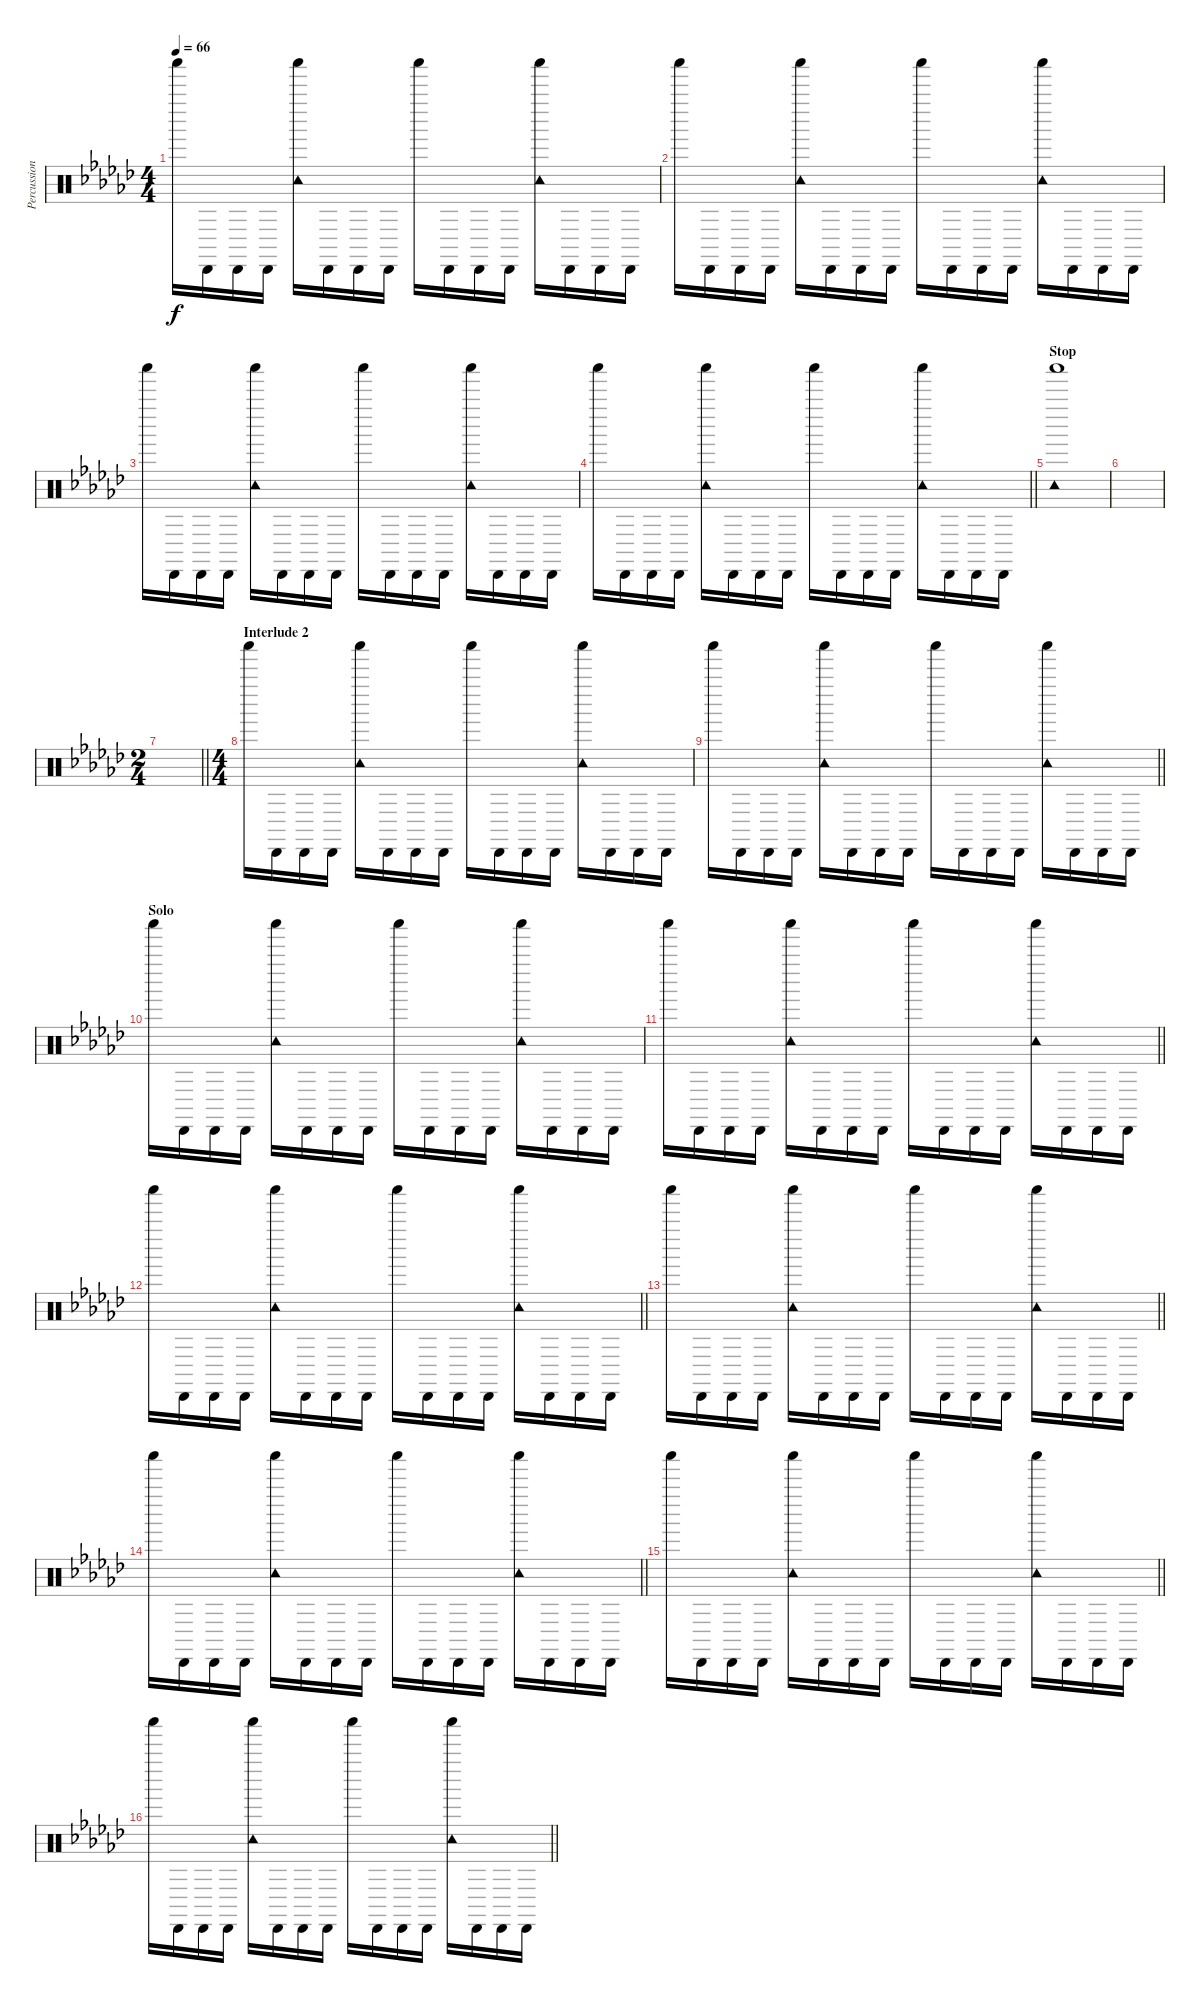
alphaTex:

\track ("Percussion" "Percussion") {instrument percussion}
\staff {score}
\articulation defaults
\ts (4 4)
\tempo 66
\clef neutral
\ks gb "Shaker (hit)".16{dy f} "Cabasa (hit)".16 "Cabasa (hit)".16 "Cabasa (hit)".16
("Shaker (hit)" "Tambourine (hit)").16 "Cabasa (hit)".16 "Cabasa (hit)".16 "Cabasa (hit)".16 "Shaker (hit)".16 "Cabasa (hit)".16 "Cabasa (hit)".16 "Cabasa (hit)".16 ("Shaker (hit)" "Tambourine (hit)").16 "Cabasa (hit)".16 "Cabasa (hit)".16 "Cabasa (hit)".16 |
"Shaker (hit)".16 "Cabasa (hit)".16 "Cabasa (hit)".16 "Cabasa (hit)".16 ("Shaker (hit)" "Tambourine (hit)").16 "Cabasa (hit)".16 "Cabasa (hit)".16 "Cabasa (hit)".16 "Shaker (hit)".16 "Cabasa (hit)".16 "Cabasa (hit)".16 "Cabasa (hit)".16 ("Shaker (hit)" "Tambourine (hit)").16 "Cabasa (hit)".16 "Cabasa (hit)".16 "Cabasa (hit)".16 |
"Shaker (hit)".16 "Cabasa (hit)".16 "Cabasa (hit)".16 "Cabasa (hit)".16 ("Shaker (hit)" "Tambourine (hit)").16 "Cabasa (hit)".16 "Cabasa (hit)".16 "Cabasa (hit)".16 "Shaker (hit)".16 "Cabasa (hit)".16 "Cabasa (hit)".16 "Cabasa (hit)".16 ("Shaker (hit)" "Tambourine (hit)").16 "Cabasa (hit)".16 "Cabasa (hit)".16 "Cabasa (hit)".16 |
\barLineRight lightlight "Shaker (hit)".16 "Cabasa (hit)".16 "Cabasa (hit)".16 "Cabasa (hit)".16
("Shaker (hit)" "Tambourine (hit)").16 "Cabasa (hit)".16 "Cabasa (hit)".16 "Cabasa (hit)".16 "Shaker (hit)".16 "Cabasa (hit)".16 "Cabasa (hit)".16 "Cabasa (hit)".16 ("Shaker (hit)" "Tambourine (hit)").16 "Cabasa (hit)".16 "Cabasa (hit)".16 "Cabasa (hit)".16 |
\section ("" "Stop")
("Shaker (hit)" "Tambourine (hit)").1 |
|
\ts (2 4)
\barLineRight lightlight
|
\ts (4 4)
\section ("" "Interlude 2")
"Shaker (hit)".16 "Cabasa (hit)".16 "Cabasa (hit)".16 "Cabasa (hit)".16 ("Shaker (hit)" "Tambourine (hit)").16 "Cabasa (hit)".16 "Cabasa (hit)".16 "Cabasa (hit)".16 "Shaker (hit)".16 "Cabasa (hit)".16 "Cabasa (hit)".16 "Cabasa (hit)".16 ("Shaker (hit)" "Tambourine (hit)").16 "Cabasa (hit)".16 "Cabasa (hit)".16 "Cabasa (hit)".16 |
\barLineRight lightlight "Shaker (hit)".16 "Cabasa (hit)".16 "Cabasa (hit)".16 "Cabasa (hit)".16
("Shaker (hit)" "Tambourine (hit)").16 "Cabasa (hit)".16 "Cabasa (hit)".16 "Cabasa (hit)".16 "Shaker (hit)".16 "Cabasa (hit)".16 "Cabasa (hit)".16 "Cabasa (hit)".16 ("Shaker (hit)" "Tambourine (hit)").16 "Cabasa (hit)".16 "Cabasa (hit)".16 "Cabasa (hit)".16 |
\section ("" "Solo")
"Shaker (hit)".16 "Cabasa (hit)".16 "Cabasa (hit)".16 "Cabasa (hit)".16 ("Shaker (hit)" "Tambourine (hit)").16 "Cabasa (hit)".16 "Cabasa (hit)".16 "Cabasa (hit)".16 "Shaker (hit)".16 "Cabasa (hit)".16 "Cabasa (hit)".16 "Cabasa (hit)".16 ("Shaker (hit)" "Tambourine (hit)").16 "Cabasa (hit)".16 "Cabasa (hit)".16 "Cabasa (hit)".16 |
\barLineRight lightlight "Shaker (hit)".16 "Cabasa (hit)".16 "Cabasa (hit)".16 "Cabasa (hit)".16
("Shaker (hit)" "Tambourine (hit)").16 "Cabasa (hit)".16 "Cabasa (hit)".16 "Cabasa (hit)".16 "Shaker (hit)".16 "Cabasa (hit)".16 "Cabasa (hit)".16 "Cabasa (hit)".16 ("Shaker (hit)" "Tambourine (hit)").16 "Cabasa (hit)".16 "Cabasa (hit)".16 "Cabasa (hit)".16 |
\barLineRight lightlight "Shaker (hit)".16 "Cabasa (hit)".16 "Cabasa (hit)".16 "Cabasa (hit)".16
("Shaker (hit)" "Tambourine (hit)").16 "Cabasa (hit)".16 "Cabasa (hit)".16 "Cabasa (hit)".16 "Shaker (hit)".16 "Cabasa (hit)".16 "Cabasa (hit)".16 "Cabasa (hit)".16 ("Shaker (hit)" "Tambourine (hit)").16 "Cabasa (hit)".16 "Cabasa (hit)".16 "Cabasa (hit)".16 |
\barLineRight lightlight "Shaker (hit)".16 "Cabasa (hit)".16 "Cabasa (hit)".16 "Cabasa (hit)".16
("Shaker (hit)" "Tambourine (hit)").16 "Cabasa (hit)".16 "Cabasa (hit)".16 "Cabasa (hit)".16 "Shaker (hit)".16 "Cabasa (hit)".16 "Cabasa (hit)".16 "Cabasa (hit)".16 ("Shaker (hit)" "Tambourine (hit)").16 "Cabasa (hit)".16 "Cabasa (hit)".16 "Cabasa (hit)".16 |
\barLineRight lightlight "Shaker (hit)".16 "Cabasa (hit)".16 "Cabasa (hit)".16 "Cabasa (hit)".16
("Shaker (hit)" "Tambourine (hit)").16 "Cabasa (hit)".16 "Cabasa (hit)".16 "Cabasa (hit)".16 "Shaker (hit)".16 "Cabasa (hit)".16 "Cabasa (hit)".16 "Cabasa (hit)".16 ("Shaker (hit)" "Tambourine (hit)").16 "Cabasa (hit)".16 "Cabasa (hit)".16 "Cabasa (hit)".16 |
\barLineRight lightlight "Shaker (hit)".16 "Cabasa (hit)".16 "Cabasa (hit)".16 "Cabasa (hit)".16
("Shaker (hit)" "Tambourine (hit)").16 "Cabasa (hit)".16 "Cabasa (hit)".16 "Cabasa (hit)".16 "Shaker (hit)".16 "Cabasa (hit)".16 "Cabasa (hit)".16 "Cabasa (hit)".16 ("Shaker (hit)" "Tambourine (hit)").16 "Cabasa (hit)".16 "Cabasa (hit)".16 "Cabasa (hit)".16 |
\barLineRight lightlight "Shaker (hit)".16 "Cabasa (hit)".16 "Cabasa (hit)".16 "Cabasa (hit)".16
("Shaker (hit)" "Tambourine (hit)").16 "Cabasa (hit)".16 "Cabasa (hit)".16 "Cabasa (hit)".16 "Shaker (hit)".16 "Cabasa (hit)".16 "Cabasa (hit)".16 "Cabasa (hit)".16 ("Shaker (hit)" "Tambourine (hit)").16 "Cabasa (hit)".16 "Cabasa (hit)".16 "Cabasa (hit)".16
